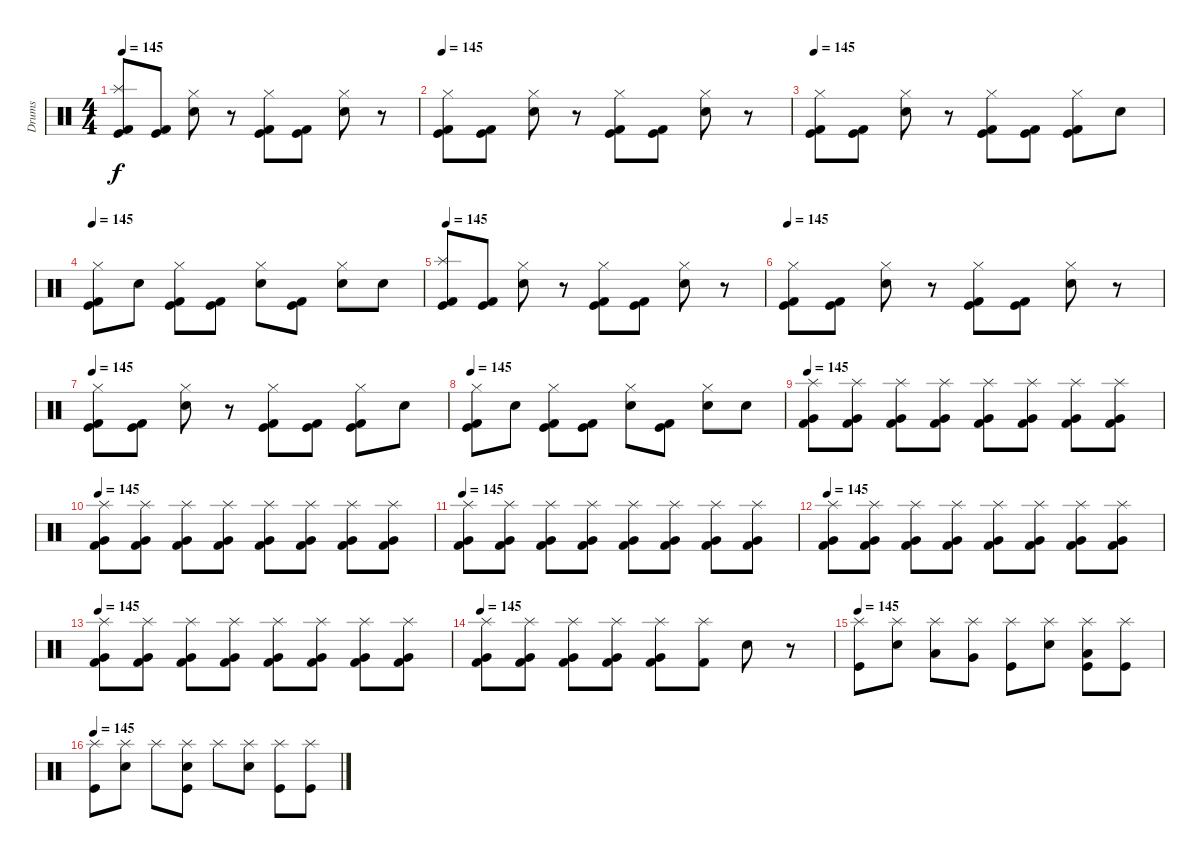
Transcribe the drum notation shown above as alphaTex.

\track ("Drums" "Drums") {instrument percussion}
\staff {score}
\articulation defaults
\ts (4 4)
\tempo 145
\clef neutral
\ks c
("Kick (hit)" "Splash (hit)" "Kick (hit) 2").8{dy f} ("Kick (hit)" "Kick (hit) 2").8 ("Hi-Hat (closed)" "Electric Snare (hit)").8 r.8 ("Kick (hit)" "Hi-Hat (closed)" "Kick (hit) 2").8 ("Kick (hit)" "Kick (hit) 2").8 ("Hi-Hat (closed)" "Electric Snare (hit)").8 r.8 |
\tempo 145
("Kick (hit)" "Hi-Hat (closed)" "Kick (hit) 2").8 ("Kick (hit)" "Kick (hit) 2").8 ("Hi-Hat (closed)" "Electric Snare (hit)").8 r.8 ("Kick (hit)" "Hi-Hat (closed)" "Kick (hit) 2").8 ("Kick (hit)" "Kick (hit) 2").8 ("Hi-Hat (closed)" "Electric Snare (hit)").8 r.8 |
\tempo 145
("Kick (hit)" "Hi-Hat (closed)" "Kick (hit) 2").8 ("Kick (hit)" "Kick (hit) 2").8 ("Hi-Hat (closed)" "Electric Snare (hit)").8 r.8 ("Kick (hit)" "Hi-Hat (closed)" "Kick (hit) 2").8 ("Kick (hit)" "Kick (hit) 2").8 ("Kick (hit)" "Hi-Hat (closed)" "Kick (hit) 2").8 "Electric Snare (hit)".8 |
\tempo 145
("Kick (hit)" "Hi-Hat (closed)" "Kick (hit) 2").8 "Electric Snare (hit)".8 ("Kick (hit)" "Hi-Hat (closed)" "Kick (hit) 2").8 ("Kick (hit) 2" "Kick (hit)").8 ("Hi-Hat (closed)" "Electric Snare (hit)").8 ("Kick (hit)" "Kick (hit) 2").8 ("Hi-Hat (closed)" "Electric Snare (hit)").8 "Snare (hit) 2".8 |
\tempo 145
("Kick (hit)" "Splash (hit)" "Kick (hit) 2").8 ("Kick (hit)" "Kick (hit) 2").8 ("Hi-Hat (closed)" "Electric Snare (hit)").8 r.8 ("Kick (hit)" "Hi-Hat (closed)" "Kick (hit) 2").8 ("Kick (hit)" "Kick (hit) 2").8 ("Hi-Hat (closed)" "Electric Snare (hit)").8 r.8 |
\tempo 145
("Kick (hit)" "Hi-Hat (closed)" "Kick (hit) 2").8 ("Kick (hit)" "Kick (hit) 2").8 ("Hi-Hat (closed)" "Electric Snare (hit)").8 r.8 ("Kick (hit)" "Hi-Hat (closed)" "Kick (hit) 2").8 ("Kick (hit)" "Kick (hit) 2").8 ("Hi-Hat (closed)" "Electric Snare (hit)").8 r.8 |
\tempo 145
("Kick (hit)" "Hi-Hat (closed)" "Kick (hit) 2").8 ("Kick (hit)" "Kick (hit) 2").8 ("Hi-Hat (closed)" "Electric Snare (hit)").8 r.8 ("Kick (hit)" "Hi-Hat (closed)" "Kick (hit) 2").8 ("Kick (hit)" "Kick (hit) 2").8 ("Kick (hit)" "Hi-Hat (closed)" "Kick (hit) 2").8 "Electric Snare (hit)".8 |
\tempo 145
("Kick (hit)" "Hi-Hat (closed)" "Kick (hit) 2").8 "Electric Snare (hit)".8 ("Kick (hit)" "Hi-Hat (closed)" "Kick (hit) 2").8 ("Kick (hit) 2" "Kick (hit)").8 ("Hi-Hat (closed)" "Electric Snare (hit)").8 ("Kick (hit)" "Kick (hit) 2").8 ("Hi-Hat (closed)" "Electric Snare (hit)").8 "Snare (hit) 2".8 |
\tempo 145
("Splash (hit)" "Very Low Tom (hit)" "Kick (hit) 2").8 ("Splash (hit)" "Very Low Tom (hit)" "Kick (hit) 2").8 ("Splash (hit)" "Very Low Tom (hit)" "Kick (hit) 2").8 ("Splash (hit)" "Very Low Tom (hit)" "Kick (hit) 2").8 ("Splash (hit)" "Very Low Tom (hit)" "Kick (hit) 2").8 ("Splash (hit)" "Very Low Tom (hit)" "Kick (hit) 2").8 ("Splash (hit)" "Very Low Tom (hit)" "Kick (hit) 2").8 ("Splash (hit)" "Very Low Tom (hit)" "Kick (hit) 2").8 |
\tempo 145
("Splash (hit)" "Very Low Tom (hit)" "Kick (hit) 2").8 ("Splash (hit)" "Very Low Tom (hit)" "Kick (hit) 2").8 ("Splash (hit)" "Very Low Tom (hit)" "Kick (hit) 2").8 ("Splash (hit)" "Very Low Tom (hit)" "Kick (hit) 2").8 ("Splash (hit)" "Very Low Tom (hit)" "Kick (hit) 2").8 ("Splash (hit)" "Very Low Tom (hit)" "Kick (hit) 2").8 ("Splash (hit)" "Very Low Tom (hit)" "Kick (hit) 2").8 ("Splash (hit)" "Very Low Tom (hit)" "Kick (hit) 2").8 |
\tempo 145
("Splash (hit)" "Very Low Tom (hit)" "Kick (hit) 2").8 ("Splash (hit)" "Very Low Tom (hit)" "Kick (hit) 2").8 ("Splash (hit)" "Very Low Tom (hit)" "Kick (hit) 2").8 ("Splash (hit)" "Very Low Tom (hit)" "Kick (hit) 2").8 ("Splash (hit)" "Very Low Tom (hit)" "Kick (hit) 2").8 ("Splash (hit)" "Very Low Tom (hit)" "Kick (hit) 2").8 ("Splash (hit)" "Very Low Tom (hit)" "Kick (hit) 2").8 ("Splash (hit)" "Very Low Tom (hit)" "Kick (hit) 2").8 |
\tempo 145
("Splash (hit)" "Very Low Tom (hit)" "Kick (hit) 2").8 ("Splash (hit)" "Very Low Tom (hit)" "Kick (hit) 2").8 ("Splash (hit)" "Very Low Tom (hit)" "Kick (hit) 2").8 ("Splash (hit)" "Very Low Tom (hit)" "Kick (hit) 2").8 ("Splash (hit)" "Very Low Tom (hit)" "Kick (hit) 2").8 ("Splash (hit)" "Very Low Tom (hit)" "Kick (hit) 2").8 ("Splash (hit)" "Very Low Tom (hit)" "Kick (hit) 2").8 ("Splash (hit)" "Very Low Tom (hit)" "Kick (hit) 2").8 |
\tempo 145
("Splash (hit)" "Very Low Tom (hit)" "Kick (hit) 2").8 ("Splash (hit)" "Very Low Tom (hit)" "Kick (hit) 2").8 ("Splash (hit)" "Very Low Tom (hit)" "Kick (hit) 2").8 ("Splash (hit)" "Very Low Tom (hit)" "Kick (hit) 2").8 ("Splash (hit)" "Very Low Tom (hit)" "Kick (hit) 2").8 ("Splash (hit)" "Very Low Tom (hit)" "Kick (hit) 2").8 ("Splash (hit)" "Very Low Tom (hit)" "Kick (hit) 2").8 ("Splash (hit)" "Very Low Tom (hit)" "Kick (hit) 2").8 |
\tempo 145
("Splash (hit)" "Very Low Tom (hit)" "Kick (hit) 2").8 ("Splash (hit)" "Very Low Tom (hit)" "Kick (hit) 2").8 ("Splash (hit)" "Very Low Tom (hit)" "Kick (hit) 2").8 ("Splash (hit)" "Very Low Tom (hit)" "Kick (hit) 2").8 ("Splash (hit)" "Very Low Tom (hit)" "Kick (hit) 2").8 ("Splash (hit)" "Kick (hit) 2").8 "Electric Snare (hit)".8 r.8 |
\tempo 145
("Kick (hit)" "Splash (hit)").8 ("Electric Snare (hit)" "Splash (hit)").8 ("Low Tom (hit)" "Splash (hit)").8 ("Very Low Tom (hit)" "Splash (hit)").8 ("Kick (hit)" "Splash (hit)").8 ("Electric Snare (hit)" "Splash (hit)").8 ("Kick (hit)" "Low Tom (hit)" "Splash (hit)").8 ("Kick (hit)" "Splash (hit)").8 |
\tempo 145
("Kick (hit)" "Splash (hit)").8 ("Electric Snare (hit)" "Splash (hit)").8 "Splash (hit)".8 ("Snare (hit) 2" "Kick (hit)" "Splash (hit)").8 "Splash (hit)".8 ("Electric Snare (hit)" "Splash (hit)").8 ("Kick (hit)" "Splash (hit)").8 ("Kick (hit)" "Splash (hit)").8
